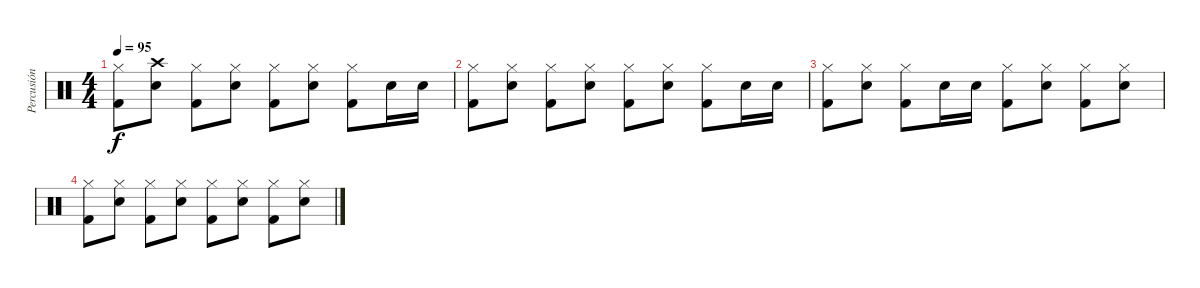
\track ("Percusión" "Percusión") {instrument percussion}
\staff {score}
\articulation defaults
\ts (4 4)
\tempo 95
\clef neutral
\ks c
("Kick (hit) 2" "Hi-Hat (closed)").8{dy f} ("Snare (hit) 2" "Crash high (hit)").8 ("Kick (hit) 2" "Hi-Hat (closed)").8 ("Snare (hit) 2" "Hi-Hat (closed)").8 ("Kick (hit) 2" "Hi-Hat (closed)").8 ("Snare (hit) 2" "Hi-Hat (closed)").8 ("Kick (hit) 2" "Hi-Hat (closed)").8 "Snare (hit) 2".16 "Snare (hit) 2".16 |
("Kick (hit) 2" "Hi-Hat (closed)").8 ("Snare (hit) 2" "Hi-Hat (closed)").8 ("Kick (hit) 2" "Hi-Hat (closed)").8 ("Snare (hit) 2" "Hi-Hat (closed)").8 ("Kick (hit) 2" "Hi-Hat (closed)").8 ("Snare (hit) 2" "Hi-Hat (closed)").8 ("Kick (hit) 2" "Hi-Hat (closed)").8 "Snare (hit) 2".16 "Snare (hit) 2".16 |
("Kick (hit) 2" "Hi-Hat (closed)").8 ("Snare (hit) 2" "Hi-Hat (closed)").8 ("Kick (hit) 2" "Hi-Hat (closed)").8 "Snare (hit) 2".16 "Snare (hit) 2".16 ("Kick (hit) 2" "Hi-Hat (closed)").8 ("Snare (hit) 2" "Hi-Hat (closed)").8 ("Kick (hit) 2" "Hi-Hat (closed)").8 ("Snare (hit) 2" "Hi-Hat (closed)").8 |
("Kick (hit) 2" "Hi-Hat (closed)").8 ("Snare (hit) 2" "Hi-Hat (closed)").8 ("Kick (hit) 2" "Hi-Hat (closed)").8 ("Snare (hit) 2" "Hi-Hat (closed)").8 ("Kick (hit) 2" "Hi-Hat (closed)").8 ("Snare (hit) 2" "Hi-Hat (closed)").8 ("Kick (hit) 2" "Hi-Hat (closed)").8 ("Snare (hit) 2" "Hi-Hat (closed)").8
